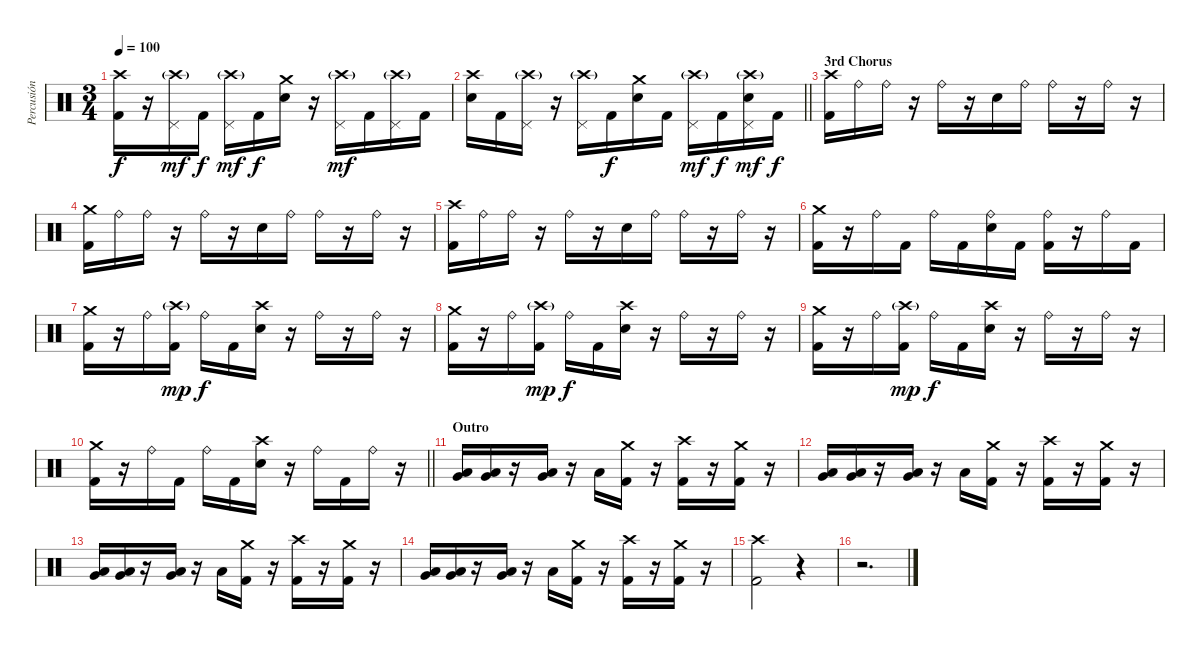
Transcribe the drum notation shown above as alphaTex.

\track ("Percusión" "Percusión") {instrument percussion}
\staff {score}
\articulation defaults
\ts (3 4)
\tempo 100
\clef neutral
\ks c
("Crash high (hit)" "Kick (hit) 2").16{dy f} r.16 ("Crash high (hit)"{g} "Pedal Hi-Hat (hit)").16{dy mf} "Kick (hit) 2".16{dy f} ("Crash high (hit)"{g} "Pedal Hi-Hat (hit)").16{dy mf} "Kick (hit) 2".16{dy f} ("Crash medium (hit)" "Electric Snare (hit)").16 r.16 ("Crash high (hit)"{g} "Pedal Hi-Hat (hit)").16{dy mf} "Kick (hit) 2".16 ("Crash high (hit)"{g} "Pedal Hi-Hat (hit)").16 "Kick (hit) 2".16 |
\barLineRight lightlight
("Crash high (hit)" "Electric Snare (hit)").16 "Kick (hit) 2".16 ("Crash high (hit)"{g} "Pedal Hi-Hat (hit)").16 r.16 ("Crash high (hit)"{g} "Pedal Hi-Hat (hit)").16 "Kick (hit) 2".16{dy f} ("Crash medium (hit)" "Electric Snare (hit)").16 "Kick (hit) 2".16 ("Crash high (hit)"{g} "Pedal Hi-Hat (hit)").16{dy mf} "Kick (hit) 2".16{dy f} ("Crash high (hit)"{g} "Pedal Hi-Hat (hit)" "Electric Snare (hit)").16{dy mf} "Kick (hit) 2".16{dy f} |
\section ("" "3rd Chorus")
("Crash high (hit)" "Kick (hit) 2").16 "Ride (bell)".16 "Ride (bell)".16 r.16 "Ride (bell)".16 r.16 "Electric Snare (hit)".16 "Ride (bell)".16 "Ride (bell)".16 r.16 "Ride (bell)".16 r.16 |
("Crash medium (hit)" "Kick (hit) 2").16 "Ride (bell)".16 "Ride (bell)".16 r.16 "Ride (bell)".16 r.16 "Electric Snare (hit)".16 "Ride (bell)".16 "Ride (bell)".16 r.16 "Ride (bell)".16 r.16 |
("Crash high (hit)" "Kick (hit) 2").16 "Ride (bell)".16 "Ride (bell)".16 r.16 "Ride (bell)".16 r.16 "Electric Snare (hit)".16 "Ride (bell)".16 "Ride (bell)".16 r.16 "Ride (bell)".16 r.16 |
("Crash medium (hit)" "Kick (hit) 2").16 r.16 "Ride (bell)".16 "Kick (hit) 2".16 "Ride (bell)".16 "Kick (hit) 2".16 ("Ride (bell)" "Electric Snare (hit)").16 "Kick (hit) 2".16 ("Ride (bell)" "Kick (hit) 2").16 r.16 "Ride (bell)".16 "Kick (hit) 2".16 |
("Crash medium (hit)" "Kick (hit) 2").16 r.16 "Ride (bell)".16 ("Crash high (hit)"{g} "Kick (hit) 2").16{dy mp} "Ride (bell)".16{dy f} "Kick (hit) 2".16 ("Crash high (hit)" "Electric Snare (hit)").16 r.16 "Ride (bell)".16 r.16 "Ride (bell)".16 r.16 |
("Crash medium (hit)" "Kick (hit) 2").16 r.16 "Ride (bell)".16 ("Crash high (hit)"{g} "Kick (hit) 2").16{dy mp} "Ride (bell)".16{dy f} "Kick (hit) 2".16 ("Crash high (hit)" "Electric Snare (hit)").16 r.16 "Ride (bell)".16 r.16 "Ride (bell)".16 r.16 |
("Crash medium (hit)" "Kick (hit) 2").16 r.16 "Ride (bell)".16 ("Crash high (hit)"{g} "Kick (hit) 2").16{dy mp} "Ride (bell)".16{dy f} "Kick (hit) 2".16 ("Crash high (hit)" "Electric Snare (hit)").16 r.16 "Ride (bell)".16 r.16 "Ride (bell)".16 r.16 |
\barLineRight lightlight
("Crash medium (hit)" "Kick (hit) 2").16 r.16 "Ride (bell)".16 "Kick (hit) 2".16 "Ride (bell)".16 "Kick (hit) 2".16 ("Crash high (hit)" "Electric Snare (hit)").16 r.16 "Ride (bell)".16 "Kick (hit) 2".16 "Ride (bell)".16 r.16 |
\section ("" "Outro")
("Very Low Tom (hit)" "Low Floor Tom (hit)").16 ("Very Low Tom (hit)" "Low Floor Tom (hit)").16 r.16 ("Very Low Tom (hit)" "Low Floor Tom (hit)").16 r.16 "Low Floor Tom (hit)".16 ("Crash medium (hit)" "Kick (hit) 2").16 r.16 ("Crash high (hit)" "Kick (hit) 2").16 r.16 ("Crash medium (hit)" "Kick (hit) 2").16 r.16 |
("Very Low Tom (hit)" "Low Floor Tom (hit)").16 ("Very Low Tom (hit)" "Low Floor Tom (hit)").16 r.16 ("Very Low Tom (hit)" "Low Floor Tom (hit)").16 r.16 "Low Floor Tom (hit)".16 ("Crash medium (hit)" "Kick (hit) 2").16 r.16 ("Crash high (hit)" "Kick (hit) 2").16 r.16 ("Crash medium (hit)" "Kick (hit) 2").16 r.16 |
("Very Low Tom (hit)" "Low Floor Tom (hit)").16 ("Very Low Tom (hit)" "Low Floor Tom (hit)").16 r.16 ("Very Low Tom (hit)" "Low Floor Tom (hit)").16 r.16 "Low Floor Tom (hit)".16 ("Crash medium (hit)" "Kick (hit) 2").16 r.16 ("Crash high (hit)" "Kick (hit) 2").16 r.16 ("Crash medium (hit)" "Kick (hit) 2").16 r.16 |
("Very Low Tom (hit)" "Low Floor Tom (hit)").16 ("Very Low Tom (hit)" "Low Floor Tom (hit)").16 r.16 ("Very Low Tom (hit)" "Low Floor Tom (hit)").16 r.16 "Low Floor Tom (hit)".16 ("Crash medium (hit)" "Kick (hit) 2").16 r.16 ("Crash high (hit)" "Kick (hit) 2").16 r.16 ("Crash medium (hit)" "Kick (hit) 2").16 r.16 |
("Crash high (hit)" "Kick (hit) 2").2 r.4 |
r.2{d}
